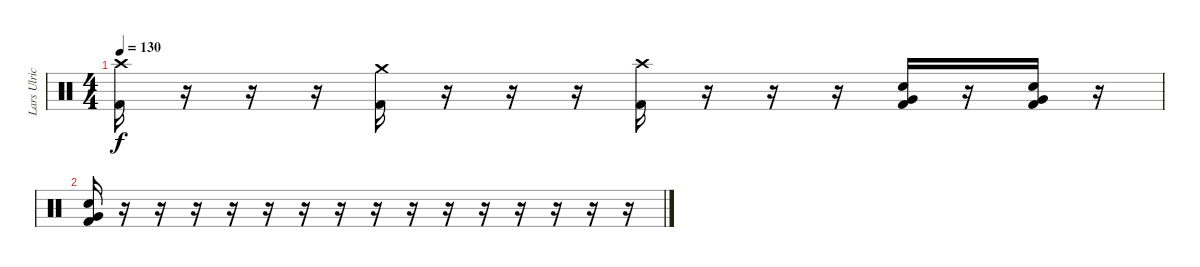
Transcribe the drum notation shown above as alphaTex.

\track ("Lars Ulrich" "Lars Ulric") {instrument percussion}
\staff {score}
\articulation defaults
\ts (4 4)
\tempo 130
\clef neutral
\ks c
("Crash high (hit)" "Kick (hit) 2").16{dy f} r.16 r.16 r.16 ("Crash medium (hit)" "Kick (hit) 2").16 r.16 r.16 r.16 ("Crash high (hit)" "Kick (hit) 2").16 r.16 r.16 r.16 ("Electric Snare (hit)" "Very Low Tom (hit)" "Kick (hit) 2").16 r.16 ("Electric Snare (hit)" "Very Low Tom (hit)" "Kick (hit) 2").16 r.16 |
("Electric Snare (hit)" "Very Low Tom (hit)" "Kick (hit) 2").16 r.16 r.16 r.16 r.16 r.16 r.16 r.16 r.16 r.16 r.16 r.16 r.16 r.16 r.16 r.16
